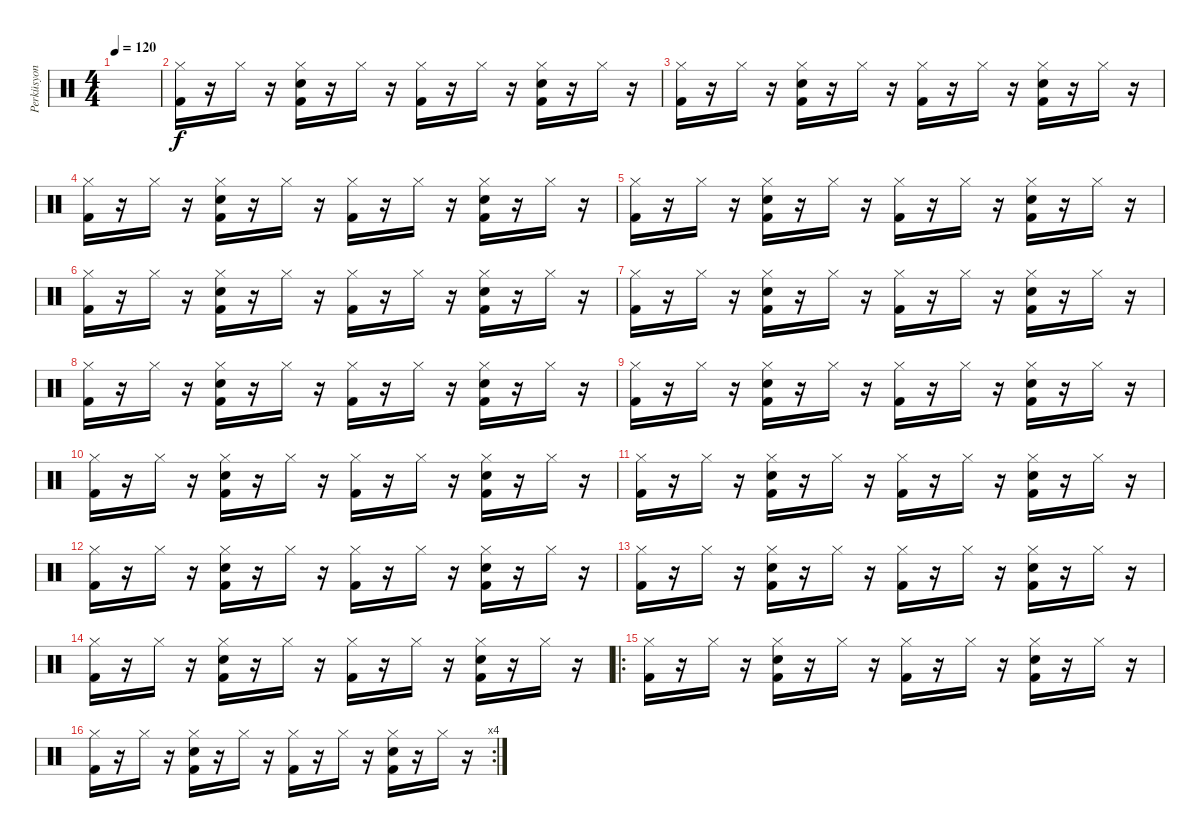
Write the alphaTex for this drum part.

\track ("Perküsyon" "Perküsyon") {instrument percussion}
\staff {score}
\articulation defaults
\ts (4 4)
\tempo 120
\clef neutral
\ks c
|
("Hi-Hat (closed)" "Kick (hit) 2").16 r.16 "Hi-Hat (closed)".16 r.16 ("Hi-Hat (closed)" "Electric Snare (hit)" "Kick (hit) 2").16 r.16 "Hi-Hat (closed)".16 r.16 ("Hi-Hat (closed)" "Kick (hit) 2").16 r.16 "Hi-Hat (closed)".16 r.16 ("Hi-Hat (closed)" "Electric Snare (hit)" "Kick (hit) 2").16 r.16 "Hi-Hat (closed)".16 r.16 |
("Hi-Hat (closed)" "Kick (hit) 2").16 r.16 "Hi-Hat (closed)".16 r.16 ("Hi-Hat (closed)" "Electric Snare (hit)" "Kick (hit) 2").16 r.16 "Hi-Hat (closed)".16 r.16 ("Hi-Hat (closed)" "Kick (hit) 2").16 r.16 "Hi-Hat (closed)".16 r.16 ("Hi-Hat (closed)" "Electric Snare (hit)" "Kick (hit) 2").16 r.16 "Hi-Hat (closed)".16 r.16 |
("Hi-Hat (closed)" "Kick (hit) 2").16 r.16 "Hi-Hat (closed)".16 r.16 ("Hi-Hat (closed)" "Electric Snare (hit)" "Kick (hit) 2").16 r.16 "Hi-Hat (closed)".16 r.16 ("Hi-Hat (closed)" "Kick (hit) 2").16 r.16 "Hi-Hat (closed)".16 r.16 ("Hi-Hat (closed)" "Electric Snare (hit)" "Kick (hit) 2").16 r.16 "Hi-Hat (closed)".16 r.16 |
("Hi-Hat (closed)" "Kick (hit) 2").16 r.16 "Hi-Hat (closed)".16 r.16 ("Hi-Hat (closed)" "Electric Snare (hit)" "Kick (hit) 2").16 r.16 "Hi-Hat (closed)".16 r.16 ("Hi-Hat (closed)" "Kick (hit) 2").16 r.16 "Hi-Hat (closed)".16 r.16 ("Hi-Hat (closed)" "Electric Snare (hit)" "Kick (hit) 2").16 r.16 "Hi-Hat (closed)".16 r.16 |
("Hi-Hat (closed)" "Kick (hit) 2").16 r.16 "Hi-Hat (closed)".16 r.16 ("Hi-Hat (closed)" "Electric Snare (hit)" "Kick (hit) 2").16 r.16 "Hi-Hat (closed)".16 r.16 ("Hi-Hat (closed)" "Kick (hit) 2").16 r.16 "Hi-Hat (closed)".16 r.16 ("Hi-Hat (closed)" "Electric Snare (hit)" "Kick (hit) 2").16 r.16 "Hi-Hat (closed)".16 r.16 |
("Hi-Hat (closed)" "Kick (hit) 2").16 r.16 "Hi-Hat (closed)".16 r.16 ("Hi-Hat (closed)" "Electric Snare (hit)" "Kick (hit) 2").16 r.16 "Hi-Hat (closed)".16 r.16 ("Hi-Hat (closed)" "Kick (hit) 2").16 r.16 "Hi-Hat (closed)".16 r.16 ("Hi-Hat (closed)" "Electric Snare (hit)" "Kick (hit) 2").16 r.16 "Hi-Hat (closed)".16 r.16 |
("Hi-Hat (closed)" "Kick (hit) 2").16 r.16 "Hi-Hat (closed)".16 r.16 ("Hi-Hat (closed)" "Electric Snare (hit)" "Kick (hit) 2").16 r.16 "Hi-Hat (closed)".16 r.16 ("Hi-Hat (closed)" "Kick (hit) 2").16 r.16 "Hi-Hat (closed)".16 r.16 ("Hi-Hat (closed)" "Electric Snare (hit)" "Kick (hit) 2").16 r.16 "Hi-Hat (closed)".16 r.16 |
("Hi-Hat (closed)" "Kick (hit) 2").16 r.16 "Hi-Hat (closed)".16 r.16 ("Hi-Hat (closed)" "Electric Snare (hit)" "Kick (hit) 2").16 r.16 "Hi-Hat (closed)".16 r.16 ("Hi-Hat (closed)" "Kick (hit) 2").16 r.16 "Hi-Hat (closed)".16 r.16 ("Hi-Hat (closed)" "Electric Snare (hit)" "Kick (hit) 2").16 r.16 "Hi-Hat (closed)".16 r.16 |
("Hi-Hat (closed)" "Kick (hit) 2").16 r.16 "Hi-Hat (closed)".16 r.16 ("Hi-Hat (closed)" "Electric Snare (hit)" "Kick (hit) 2").16 r.16 "Hi-Hat (closed)".16 r.16 ("Hi-Hat (closed)" "Kick (hit) 2").16 r.16 "Hi-Hat (closed)".16 r.16 ("Hi-Hat (closed)" "Electric Snare (hit)" "Kick (hit) 2").16 r.16 "Hi-Hat (closed)".16 r.16 |
("Hi-Hat (closed)" "Kick (hit) 2").16 r.16 "Hi-Hat (closed)".16 r.16 ("Hi-Hat (closed)" "Electric Snare (hit)" "Kick (hit) 2").16 r.16 "Hi-Hat (closed)".16 r.16 ("Hi-Hat (closed)" "Kick (hit) 2").16 r.16 "Hi-Hat (closed)".16 r.16 ("Hi-Hat (closed)" "Electric Snare (hit)" "Kick (hit) 2").16 r.16 "Hi-Hat (closed)".16 r.16 |
("Hi-Hat (closed)" "Kick (hit) 2").16 r.16 "Hi-Hat (closed)".16 r.16 ("Hi-Hat (closed)" "Electric Snare (hit)" "Kick (hit) 2").16 r.16 "Hi-Hat (closed)".16 r.16 ("Hi-Hat (closed)" "Kick (hit) 2").16 r.16 "Hi-Hat (closed)".16 r.16 ("Hi-Hat (closed)" "Electric Snare (hit)" "Kick (hit) 2").16 r.16 "Hi-Hat (closed)".16 r.16 |
("Hi-Hat (closed)" "Kick (hit) 2").16 r.16 "Hi-Hat (closed)".16 r.16 ("Hi-Hat (closed)" "Electric Snare (hit)" "Kick (hit) 2").16 r.16 "Hi-Hat (closed)".16 r.16 ("Hi-Hat (closed)" "Kick (hit) 2").16 r.16 "Hi-Hat (closed)".16 r.16 ("Hi-Hat (closed)" "Electric Snare (hit)" "Kick (hit) 2").16 r.16 "Hi-Hat (closed)".16 r.16 |
("Hi-Hat (closed)" "Kick (hit) 2").16 r.16 "Hi-Hat (closed)".16 r.16 ("Hi-Hat (closed)" "Electric Snare (hit)" "Kick (hit) 2").16 r.16 "Hi-Hat (closed)".16 r.16 ("Hi-Hat (closed)" "Kick (hit) 2").16 r.16 "Hi-Hat (closed)".16 r.16 ("Hi-Hat (closed)" "Electric Snare (hit)" "Kick (hit) 2").16 r.16 "Hi-Hat (closed)".16 r.16 |
\ro
("Hi-Hat (closed)" "Kick (hit) 2").16 r.16 "Hi-Hat (closed)".16 r.16 ("Hi-Hat (closed)" "Electric Snare (hit)" "Kick (hit) 2").16 r.16 "Hi-Hat (closed)".16 r.16 ("Hi-Hat (closed)" "Kick (hit) 2").16 r.16 "Hi-Hat (closed)".16 r.16 ("Hi-Hat (closed)" "Electric Snare (hit)" "Kick (hit) 2").16 r.16 "Hi-Hat (closed)".16 r.16 |
\rc 4
("Hi-Hat (closed)" "Kick (hit) 2").16 r.16 "Hi-Hat (closed)".16 r.16 ("Hi-Hat (closed)" "Electric Snare (hit)" "Kick (hit) 2").16 r.16 "Hi-Hat (closed)".16 r.16 ("Hi-Hat (closed)" "Kick (hit) 2").16 r.16 "Hi-Hat (closed)".16 r.16 ("Hi-Hat (closed)" "Electric Snare (hit)" "Kick (hit) 2").16 r.16 "Hi-Hat (closed)".16 r.16
